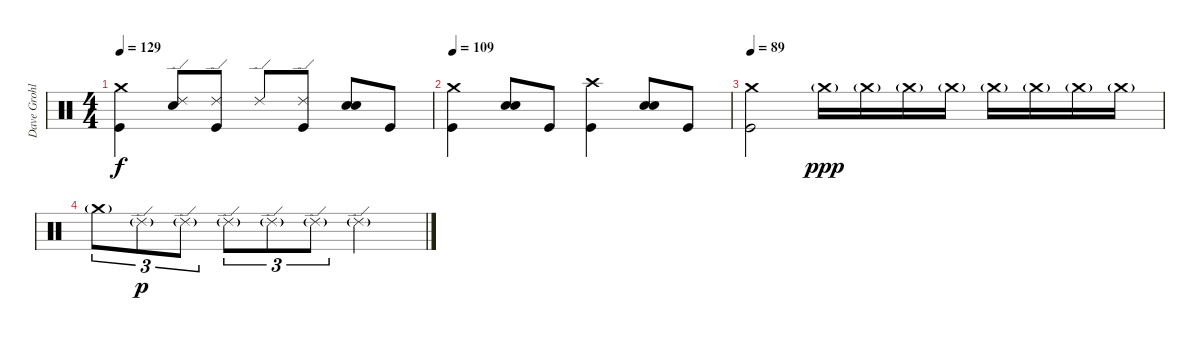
\track ("Dave Grohl" "Dave Grohl") {instrument percussion}
\staff {score}
\articulation defaults
\ts (4 4)
\tempo 129
\clef neutral
\ks c
("Crash medium (hit)" "Kick (hit)").4{dy f} ("Ride (edge) 2" "Electric Snare (hit)").8 ("Ride (edge) 2" "Kick (hit)").8 "Ride (edge) 2".8 ("Ride (edge) 2" "Kick (hit)").8 ("Electric Snare (hit)" "Electric Snare (hit)").8{bd 120} "Kick (hit)".8 |
\tempo 109
("Crash medium (hit)" "Kick (hit)").4 ("Electric Snare (hit)" "Electric Snare (hit)").8{bd 120} "Kick (hit)".8 ("Crash high (hit)" "Kick (hit)").4 ("Electric Snare (hit)" "Electric Snare (hit)").8{bd 120} "Kick (hit)".8 |
\tempo 89
("Crash medium (hit)" "Kick (hit)").2 "Crash medium (hit)"{g}.16{dy ppp} "Crash medium (hit)"{g}.16 "Crash medium (hit)"{g}.16 "Crash medium (hit)"{g}.16 "Crash medium (hit)"{g}.16 "Crash medium (hit)"{g}.16 "Crash medium (hit)"{g}.16 "Crash medium (hit)"{g}.16 |
"Crash medium (hit)"{g}.8{tu (3 2)} "Ride (edge) 2"{g}.8{tu (3 2) dy p} "Ride (edge) 2"{g}.8{tu (3 2)} "Ride (edge) 2"{g}.8{tu (3 2)} "Ride (edge) 2"{g}.8{tu (3 2)} "Ride (edge) 2"{g}.8{tu (3 2)} "Ride (edge) 2"{g}.2
